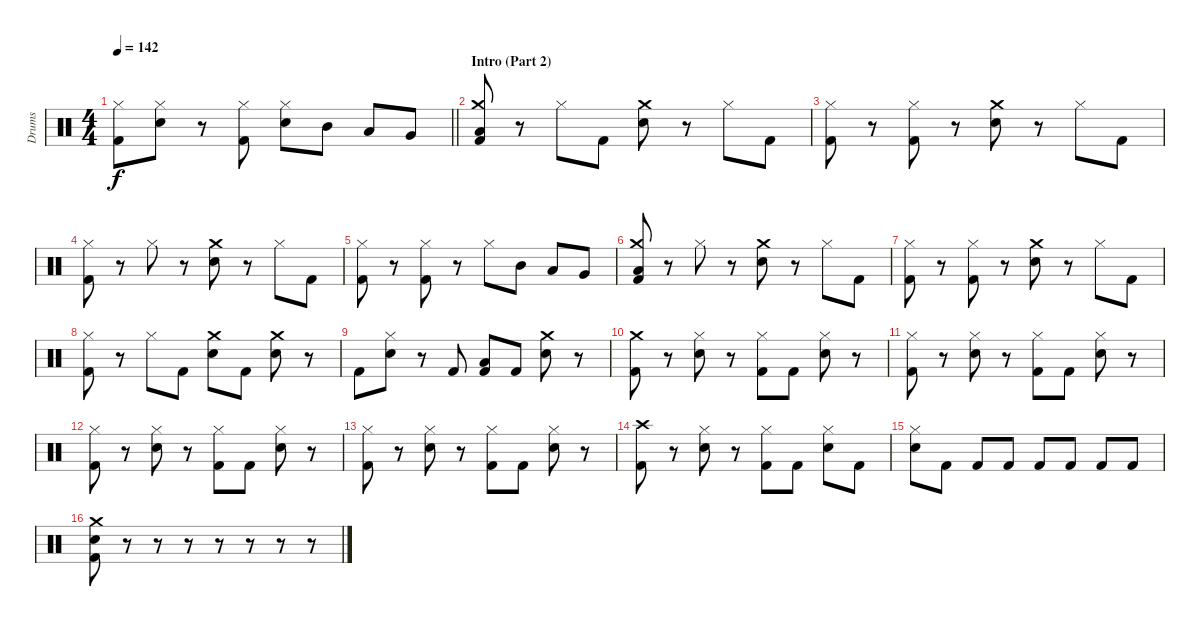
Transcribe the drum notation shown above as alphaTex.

\track ("Drums" "Drums") {instrument percussion}
\staff {score}
\articulation defaults
\ts (4 4)
\tempo 142
\clef neutral
\barLineRight lightlight
\ks c
("Hi-Hat (closed)" "Kick (hit) 2").8{dy f} ("Hi-Hat (closed)" "Electric Snare (hit)").8 r.8 ("Hi-Hat (closed)" "Kick (hit) 2").8 ("Hi-Hat (closed)" "Electric Snare (hit)").8 "Mid Tom (hit)".8 "Low Tom (hit)".8 "Very Low Tom (hit)".8 |
\section ("" "Intro (Part 2)")
("Crash medium (hit)" "Low Floor Tom (hit)" "Kick (hit) 2").8 r.8 "Hi-Hat (closed)".8 "Kick (hit) 2".8 ("Crash medium (hit)" "Electric Snare (hit)").8 r.8 "Hi-Hat (closed)".8 "Kick (hit) 2".8 |
("Hi-Hat (closed)" "Kick (hit) 2").8 r.8 ("Hi-Hat (closed)" "Kick (hit) 2").8 r.8 ("Crash medium (hit)" "Electric Snare (hit)").8 r.8 "Hi-Hat (closed)".8 "Kick (hit) 2".8 |
("Hi-Hat (closed)" "Kick (hit) 2").8 r.8 "Hi-Hat (closed)".8 r.8 ("Crash medium (hit)" "Electric Snare (hit)").8 r.8 "Hi-Hat (closed)".8 "Kick (hit) 2".8 |
("Hi-Hat (closed)" "Kick (hit) 2").8 r.8 ("Hi-Hat (closed)" "Kick (hit) 2").8 r.8 "Hi-Hat (closed)".8 "Mid Tom (hit)".8 "Low Tom (hit)".8 "Very Low Tom (hit)".8 |
("Crash medium (hit)" "Low Floor Tom (hit)" "Kick (hit) 2").8 r.8 "Hi-Hat (closed)".8 r.8 ("Crash medium (hit)" "Electric Snare (hit)").8 r.8 "Hi-Hat (closed)".8 "Kick (hit) 2".8 |
("Hi-Hat (closed)" "Kick (hit) 2").8 r.8 ("Hi-Hat (closed)" "Kick (hit) 2").8 r.8 ("Crash medium (hit)" "Electric Snare (hit)").8 r.8 "Hi-Hat (closed)".8 "Kick (hit) 2".8 |
("Hi-Hat (closed)" "Kick (hit) 2").8 r.8 "Hi-Hat (closed)".8 "Kick (hit) 2".8 ("Crash medium (hit)" "Electric Snare (hit)").8 "Kick (hit) 2".8 ("Crash medium (hit)" "Electric Snare (hit)").8 r.8 |
"Kick (hit) 2".8 ("Hi-Hat (closed)" "Electric Snare (hit)").8 r.8 "Kick (hit) 2".8 ("Low Floor Tom (hit)" "Kick (hit) 2").8 "Kick (hit) 2".8 ("Crash medium (hit)" "Electric Snare (hit)").8 r.8 |
("Crash medium (hit)" "Kick (hit) 2").8 r.8 ("Hi-Hat (closed)" "Electric Snare (hit)").8 r.8 ("Hi-Hat (closed)" "Kick (hit) 2").8 "Kick (hit) 2".8 ("Hi-Hat (closed)" "Electric Snare (hit)").8 r.8 |
("Hi-Hat (closed)" "Kick (hit) 2").8 r.8 ("Hi-Hat (closed)" "Electric Snare (hit)").8 r.8 ("Hi-Hat (closed)" "Kick (hit) 2").8 "Kick (hit) 2".8 ("Hi-Hat (closed)" "Electric Snare (hit)").8 r.8 |
("Hi-Hat (closed)" "Kick (hit) 2").8 r.8 ("Hi-Hat (closed)" "Electric Snare (hit)").8 r.8 ("Hi-Hat (closed)" "Kick (hit) 2").8 "Kick (hit) 2".8 ("Hi-Hat (closed)" "Electric Snare (hit)").8 r.8 |
("Hi-Hat (closed)" "Kick (hit) 2").8 r.8 ("Hi-Hat (closed)" "Electric Snare (hit)").8 r.8 ("Hi-Hat (closed)" "Kick (hit) 2").8 "Kick (hit) 2".8 ("Hi-Hat (closed)" "Electric Snare (hit)").8 r.8 |
("Crash high (hit)" "Kick (hit) 2").8 r.8 ("Hi-Hat (closed)" "Electric Snare (hit)").8 r.8 ("Hi-Hat (closed)" "Kick (hit) 2").8 "Kick (hit) 2".8 ("Hi-Hat (closed)" "Electric Snare (hit)").8 "Kick (hit) 2".8 |
("Hi-Hat (closed)" "Electric Snare (hit)").8 "Kick (hit) 2".8 "Kick (hit) 2".8 "Kick (hit) 2".8 "Kick (hit) 2".8 "Kick (hit) 2".8 "Kick (hit) 2".8 "Kick (hit) 2".8 |
("Crash medium (hit)" "Electric Snare (hit)" "Kick (hit) 2").8 r.8 r.8 r.8 r.8 r.8 r.8 r.8
